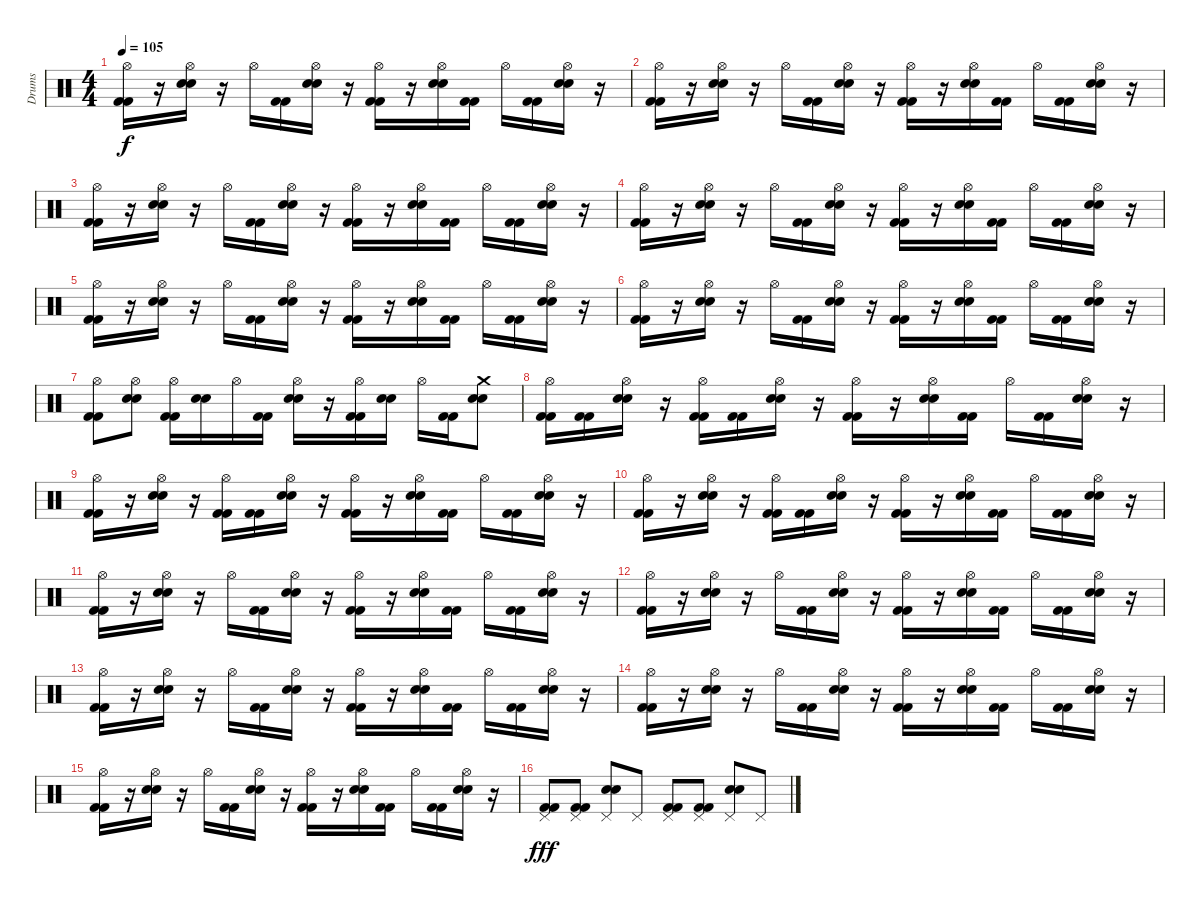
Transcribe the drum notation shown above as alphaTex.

\track ("Drums" "Drums") {instrument percussion}
\staff {score}
\articulation defaults
\ts (4 4)
\tempo 105
\clef neutral
\ks c
("Hi-Hat (open)" "Kick (hit) 2" "Kick (hit) 2").16{dy f} r.16 ("Hi-Hat (open)" "Electric Snare (hit)" "Snare (hit) 2").16 r.16 "Hi-Hat (open)".16 ("Kick (hit) 2" "Kick (hit) 2").16 ("Hi-Hat (open)" "Electric Snare (hit)" "Snare (hit) 2").16 r.16 ("Hi-Hat (open)" "Kick (hit) 2" "Kick (hit) 2").16 r.16 ("Hi-Hat (open)" "Electric Snare (hit)" "Snare (hit) 2").16 ("Kick (hit) 2" "Kick (hit) 2").16 "Hi-Hat (open)".16 ("Kick (hit) 2" "Kick (hit) 2").16 ("Hi-Hat (open)" "Electric Snare (hit)" "Snare (hit) 2").16 r.16 |
("Hi-Hat (open)" "Kick (hit) 2" "Kick (hit) 2").16 r.16 ("Hi-Hat (open)" "Electric Snare (hit)" "Snare (hit) 2").16 r.16 "Hi-Hat (open)".16 ("Kick (hit) 2" "Kick (hit) 2").16 ("Hi-Hat (open)" "Electric Snare (hit)" "Snare (hit) 2").16 r.16 ("Hi-Hat (open)" "Kick (hit) 2" "Kick (hit) 2").16 r.16 ("Hi-Hat (open)" "Electric Snare (hit)" "Snare (hit) 2").16 ("Kick (hit) 2" "Kick (hit) 2").16 "Hi-Hat (open)".16 ("Kick (hit) 2" "Kick (hit) 2").16 ("Hi-Hat (open)" "Electric Snare (hit)" "Snare (hit) 2").16 r.16 |
("Hi-Hat (open)" "Kick (hit) 2" "Kick (hit) 2").16 r.16 ("Hi-Hat (open)" "Electric Snare (hit)" "Snare (hit) 2").16 r.16 "Hi-Hat (open)".16 ("Kick (hit) 2" "Kick (hit) 2").16 ("Hi-Hat (open)" "Electric Snare (hit)" "Snare (hit) 2").16 r.16 ("Hi-Hat (open)" "Kick (hit) 2" "Kick (hit) 2").16 r.16 ("Hi-Hat (open)" "Electric Snare (hit)" "Snare (hit) 2").16 ("Kick (hit) 2" "Kick (hit) 2").16 "Hi-Hat (open)".16 ("Kick (hit) 2" "Kick (hit) 2").16 ("Hi-Hat (open)" "Electric Snare (hit)" "Snare (hit) 2").16 r.16 |
("Hi-Hat (open)" "Kick (hit) 2" "Kick (hit) 2").16 r.16 ("Hi-Hat (open)" "Electric Snare (hit)" "Snare (hit) 2").16 r.16 "Hi-Hat (open)".16 ("Kick (hit) 2" "Kick (hit) 2").16 ("Hi-Hat (open)" "Electric Snare (hit)" "Snare (hit) 2").16 r.16 ("Hi-Hat (open)" "Kick (hit) 2" "Kick (hit) 2").16 r.16 ("Hi-Hat (open)" "Electric Snare (hit)" "Snare (hit) 2").16 ("Kick (hit) 2" "Kick (hit) 2").16 "Hi-Hat (open)".16 ("Kick (hit) 2" "Kick (hit) 2").16 ("Hi-Hat (open)" "Electric Snare (hit)" "Snare (hit) 2").16 r.16 |
("Hi-Hat (open)" "Kick (hit) 2" "Kick (hit) 2").16 r.16 ("Hi-Hat (open)" "Electric Snare (hit)" "Snare (hit) 2").16 r.16 "Hi-Hat (open)".16 ("Kick (hit) 2" "Kick (hit) 2").16 ("Hi-Hat (open)" "Electric Snare (hit)" "Snare (hit) 2").16 r.16 ("Hi-Hat (open)" "Kick (hit) 2" "Kick (hit) 2").16 r.16 ("Hi-Hat (open)" "Electric Snare (hit)" "Snare (hit) 2").16 ("Kick (hit) 2" "Kick (hit) 2").16 "Hi-Hat (open)".16 ("Kick (hit) 2" "Kick (hit) 2").16 ("Hi-Hat (open)" "Electric Snare (hit)" "Snare (hit) 2").16 r.16 |
("Hi-Hat (open)" "Kick (hit) 2" "Kick (hit) 2").16 r.16 ("Hi-Hat (open)" "Electric Snare (hit)" "Snare (hit) 2").16 r.16 "Hi-Hat (open)".16 ("Kick (hit) 2" "Kick (hit) 2").16 ("Hi-Hat (open)" "Electric Snare (hit)" "Snare (hit) 2").16 r.16 ("Hi-Hat (open)" "Kick (hit) 2" "Kick (hit) 2").16 r.16 ("Hi-Hat (open)" "Electric Snare (hit)" "Snare (hit) 2").16 ("Kick (hit) 2" "Kick (hit) 2").16 "Hi-Hat (open)".16 ("Kick (hit) 2" "Kick (hit) 2").16 ("Hi-Hat (open)" "Electric Snare (hit)" "Snare (hit) 2").16 r.16 |
("Hi-Hat (open)" "Kick (hit) 2" "Kick (hit) 2").8 ("Hi-Hat (open)" "Electric Snare (hit)" "Snare (hit) 2").8 ("Hi-Hat (open)" "Kick (hit) 2" "Kick (hit) 2").16 ("Electric Snare (hit)" "Snare (hit) 2").16 "Hi-Hat (open)".16 ("Kick (hit) 2" "Kick (hit) 2").16 ("Hi-Hat (open)" "Electric Snare (hit)" "Snare (hit) 2").16 r.16 ("Hi-Hat (open)" "Kick (hit) 2" "Kick (hit) 2").16 ("Electric Snare (hit)" "Snare (hit) 2").16 "Hi-Hat (open)".16 ("Kick (hit) 2" "Kick (hit) 2").16 ("Crash medium (hit)" "Electric Snare (hit)" "Snare (hit) 2").8 |
("Hi-Hat (open)" "Kick (hit) 2" "Kick (hit) 2").16 ("Kick (hit) 2" "Kick (hit) 2").16 ("Hi-Hat (open)" "Electric Snare (hit)" "Snare (hit) 2").16 r.16 ("Hi-Hat (open)" "Kick (hit) 2" "Kick (hit) 2").16 ("Kick (hit) 2" "Kick (hit) 2").16 ("Hi-Hat (open)" "Electric Snare (hit)" "Snare (hit) 2").16 r.16 ("Hi-Hat (open)" "Kick (hit) 2" "Kick (hit) 2").16 r.16 ("Hi-Hat (open)" "Electric Snare (hit)" "Snare (hit) 2").16 ("Kick (hit) 2" "Kick (hit) 2").16 "Hi-Hat (open)".16 ("Kick (hit) 2" "Kick (hit) 2").16 ("Hi-Hat (open)" "Electric Snare (hit)" "Snare (hit) 2").16 r.16 |
("Hi-Hat (open)" "Kick (hit) 2" "Kick (hit) 2").16 r.16 ("Hi-Hat (open)" "Electric Snare (hit)" "Snare (hit) 2").16 r.16 ("Hi-Hat (open)" "Kick (hit) 2" "Kick (hit) 2").16 ("Kick (hit) 2" "Kick (hit) 2").16 ("Hi-Hat (open)" "Electric Snare (hit)" "Snare (hit) 2").16 r.16 ("Hi-Hat (open)" "Kick (hit) 2" "Kick (hit) 2").16 r.16 ("Hi-Hat (open)" "Electric Snare (hit)" "Snare (hit) 2").16 ("Kick (hit) 2" "Kick (hit) 2").16 "Hi-Hat (open)".16 ("Kick (hit) 2" "Kick (hit) 2").16 ("Hi-Hat (open)" "Electric Snare (hit)" "Snare (hit) 2").16 r.16 |
("Hi-Hat (open)" "Kick (hit) 2" "Kick (hit) 2").16 r.16 ("Hi-Hat (open)" "Electric Snare (hit)" "Snare (hit) 2").16 r.16 ("Hi-Hat (open)" "Kick (hit) 2" "Kick (hit) 2").16 ("Kick (hit) 2" "Kick (hit) 2").16 ("Hi-Hat (open)" "Electric Snare (hit)" "Snare (hit) 2").16 r.16 ("Hi-Hat (open)" "Kick (hit) 2" "Kick (hit) 2").16 r.16 ("Hi-Hat (open)" "Electric Snare (hit)" "Snare (hit) 2").16 ("Kick (hit) 2" "Kick (hit) 2").16 "Hi-Hat (open)".16 ("Kick (hit) 2" "Kick (hit) 2").16 ("Hi-Hat (open)" "Electric Snare (hit)" "Snare (hit) 2").16 r.16 |
("Hi-Hat (open)" "Kick (hit) 2" "Kick (hit) 2").16 r.16 ("Hi-Hat (open)" "Electric Snare (hit)" "Snare (hit) 2").16 r.16 "Hi-Hat (open)".16 ("Kick (hit) 2" "Kick (hit) 2").16 ("Hi-Hat (open)" "Electric Snare (hit)" "Snare (hit) 2").16 r.16 ("Hi-Hat (open)" "Kick (hit) 2" "Kick (hit) 2").16 r.16 ("Hi-Hat (open)" "Electric Snare (hit)" "Snare (hit) 2").16 ("Kick (hit) 2" "Kick (hit) 2").16 "Hi-Hat (open)".16 ("Kick (hit) 2" "Kick (hit) 2").16 ("Hi-Hat (open)" "Electric Snare (hit)" "Snare (hit) 2").16 r.16 |
("Hi-Hat (open)" "Kick (hit) 2" "Kick (hit) 2").16 r.16 ("Hi-Hat (open)" "Electric Snare (hit)" "Snare (hit) 2").16 r.16 "Hi-Hat (open)".16 ("Kick (hit) 2" "Kick (hit) 2").16 ("Hi-Hat (open)" "Electric Snare (hit)" "Snare (hit) 2").16 r.16 ("Hi-Hat (open)" "Kick (hit) 2" "Kick (hit) 2").16 r.16 ("Hi-Hat (open)" "Electric Snare (hit)" "Snare (hit) 2").16 ("Kick (hit) 2" "Kick (hit) 2").16 "Hi-Hat (open)".16 ("Kick (hit) 2" "Kick (hit) 2").16 ("Hi-Hat (open)" "Electric Snare (hit)" "Snare (hit) 2").16 r.16 |
("Hi-Hat (open)" "Kick (hit) 2" "Kick (hit) 2").16 r.16 ("Hi-Hat (open)" "Electric Snare (hit)" "Snare (hit) 2").16 r.16 "Hi-Hat (open)".16 ("Kick (hit) 2" "Kick (hit) 2").16 ("Hi-Hat (open)" "Electric Snare (hit)" "Snare (hit) 2").16 r.16 ("Hi-Hat (open)" "Kick (hit) 2" "Kick (hit) 2").16 r.16 ("Hi-Hat (open)" "Electric Snare (hit)" "Snare (hit) 2").16 ("Kick (hit) 2" "Kick (hit) 2").16 "Hi-Hat (open)".16 ("Kick (hit) 2" "Kick (hit) 2").16 ("Hi-Hat (open)" "Electric Snare (hit)" "Snare (hit) 2").16 r.16 |
("Hi-Hat (open)" "Kick (hit) 2" "Kick (hit) 2").16 r.16 ("Hi-Hat (open)" "Electric Snare (hit)" "Snare (hit) 2").16 r.16 "Hi-Hat (open)".16 ("Kick (hit) 2" "Kick (hit) 2").16 ("Hi-Hat (open)" "Electric Snare (hit)" "Snare (hit) 2").16 r.16 ("Hi-Hat (open)" "Kick (hit) 2" "Kick (hit) 2").16 r.16 ("Hi-Hat (open)" "Electric Snare (hit)" "Snare (hit) 2").16 ("Kick (hit) 2" "Kick (hit) 2").16 "Hi-Hat (open)".16 ("Kick (hit) 2" "Kick (hit) 2").16 ("Hi-Hat (open)" "Electric Snare (hit)" "Snare (hit) 2").16 r.16 |
("Hi-Hat (open)" "Kick (hit) 2" "Kick (hit) 2").16 r.16 ("Hi-Hat (open)" "Electric Snare (hit)" "Snare (hit) 2").16 r.16 "Hi-Hat (open)".16 ("Kick (hit) 2" "Kick (hit) 2").16 ("Hi-Hat (open)" "Electric Snare (hit)" "Snare (hit) 2").16 r.16 ("Hi-Hat (open)" "Kick (hit) 2" "Kick (hit) 2").16 r.16 ("Hi-Hat (open)" "Electric Snare (hit)" "Snare (hit) 2").16 ("Kick (hit) 2" "Kick (hit) 2").16 "Hi-Hat (open)".16 ("Kick (hit) 2" "Kick (hit) 2").16 ("Hi-Hat (open)" "Electric Snare (hit)" "Snare (hit) 2").16 r.16 |
("Pedal Hi-Hat (hit)" "Kick (hit) 2" "Kick (hit) 2").8{dy fff} ("Pedal Hi-Hat (hit)" "Kick (hit) 2" "Kick (hit) 2").8 ("Pedal Hi-Hat (hit)" "Electric Snare (hit)" "Snare (hit) 2").8 "Pedal Hi-Hat (hit)".8 ("Pedal Hi-Hat (hit)" "Kick (hit) 2" "Kick (hit) 2").8 ("Pedal Hi-Hat (hit)" "Kick (hit) 2" "Kick (hit) 2").8 ("Pedal Hi-Hat (hit)" "Electric Snare (hit)" "Snare (hit) 2").8 "Pedal Hi-Hat (hit)".8
